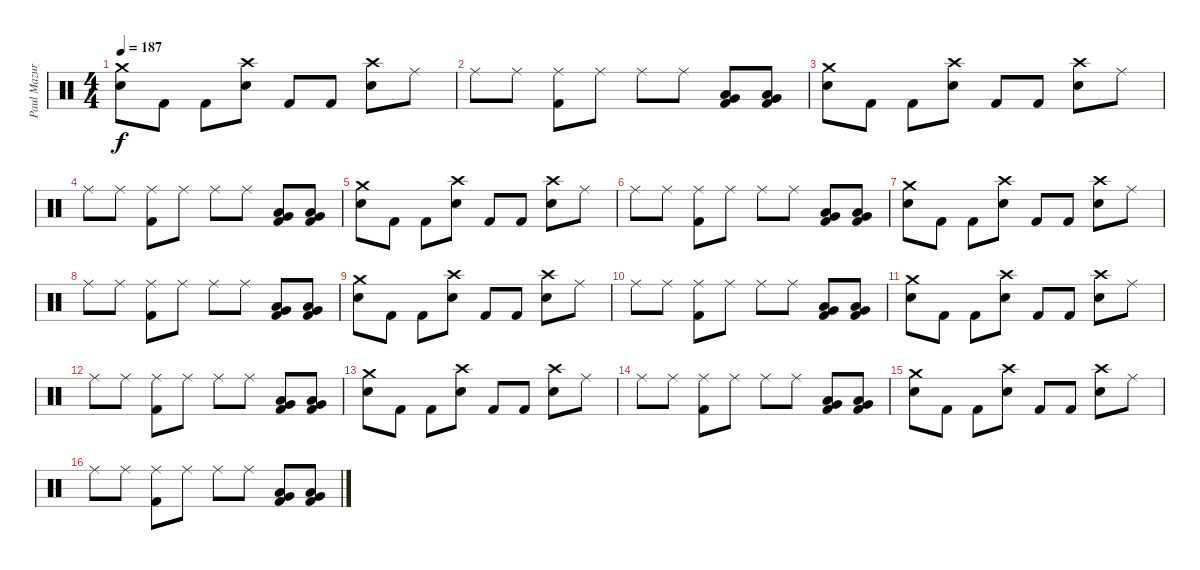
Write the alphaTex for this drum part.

\track ("Paul Mazurkiewicz - Drums" "Paul Mazur") {instrument percussion}
\staff {score}
\articulation defaults
\ts (4 4)
\tempo 187
\clef neutral
\ks c
("Crash medium (hit)" "Snare (hit) 2").8{dy f} "Kick (hit) 2".8 "Kick (hit) 2".8 ("Crash high (hit)" "Snare (hit) 2").8 "Kick (hit) 2".8 "Kick (hit) 2".8 ("Crash high (hit)" "Snare (hit) 2").8 "Ride (middle)".8 |
"Ride (middle)".8 "Ride (middle)".8 ("Ride (middle)" "Kick (hit) 2").8 "Ride (middle)".8 "Ride (middle)".8 "Ride (middle)".8 ("Kick (hit) 2" "Low Floor Tom (hit)" "Very Low Tom (hit)").8 ("Kick (hit) 2" "Low Floor Tom (hit)" "Very Low Tom (hit)").8 |
("Crash medium (hit)" "Snare (hit) 2").8 "Kick (hit) 2".8 "Kick (hit) 2".8 ("Crash high (hit)" "Snare (hit) 2").8 "Kick (hit) 2".8 "Kick (hit) 2".8 ("Crash high (hit)" "Snare (hit) 2").8 "Ride (middle)".8 |
"Ride (middle)".8 "Ride (middle)".8 ("Ride (middle)" "Kick (hit) 2").8 "Ride (middle)".8 "Ride (middle)".8 "Ride (middle)".8 ("Kick (hit) 2" "Low Floor Tom (hit)" "Very Low Tom (hit)").8 ("Kick (hit) 2" "Low Floor Tom (hit)" "Very Low Tom (hit)").8 |
("Crash medium (hit)" "Snare (hit) 2").8 "Kick (hit) 2".8 "Kick (hit) 2".8 ("Crash high (hit)" "Snare (hit) 2").8 "Kick (hit) 2".8 "Kick (hit) 2".8 ("Crash high (hit)" "Snare (hit) 2").8 "Ride (middle)".8 |
"Ride (middle)".8 "Ride (middle)".8 ("Ride (middle)" "Kick (hit) 2").8 "Ride (middle)".8 "Ride (middle)".8 "Ride (middle)".8 ("Kick (hit) 2" "Low Floor Tom (hit)" "Very Low Tom (hit)").8 ("Kick (hit) 2" "Low Floor Tom (hit)" "Very Low Tom (hit)").8 |
("Crash medium (hit)" "Snare (hit) 2").8 "Kick (hit) 2".8 "Kick (hit) 2".8 ("Crash high (hit)" "Snare (hit) 2").8 "Kick (hit) 2".8 "Kick (hit) 2".8 ("Crash high (hit)" "Snare (hit) 2").8 "Ride (middle)".8 |
"Ride (middle)".8 "Ride (middle)".8 ("Ride (middle)" "Kick (hit) 2").8 "Ride (middle)".8 "Ride (middle)".8 "Ride (middle)".8 ("Kick (hit) 2" "Low Floor Tom (hit)" "Very Low Tom (hit)").8 ("Kick (hit) 2" "Low Floor Tom (hit)" "Very Low Tom (hit)").8 |
("Crash medium (hit)" "Snare (hit) 2").8 "Kick (hit) 2".8 "Kick (hit) 2".8 ("Crash high (hit)" "Snare (hit) 2").8 "Kick (hit) 2".8 "Kick (hit) 2".8 ("Crash high (hit)" "Snare (hit) 2").8 "Ride (middle)".8 |
"Ride (middle)".8 "Ride (middle)".8 ("Ride (middle)" "Kick (hit) 2").8 "Ride (middle)".8 "Ride (middle)".8 "Ride (middle)".8 ("Kick (hit) 2" "Low Floor Tom (hit)" "Very Low Tom (hit)").8 ("Kick (hit) 2" "Low Floor Tom (hit)" "Very Low Tom (hit)").8 |
("Crash medium (hit)" "Snare (hit) 2").8 "Kick (hit) 2".8 "Kick (hit) 2".8 ("Crash high (hit)" "Snare (hit) 2").8 "Kick (hit) 2".8 "Kick (hit) 2".8 ("Crash high (hit)" "Snare (hit) 2").8 "Ride (middle)".8 |
"Ride (middle)".8 "Ride (middle)".8 ("Ride (middle)" "Kick (hit) 2").8 "Ride (middle)".8 "Ride (middle)".8 "Ride (middle)".8 ("Kick (hit) 2" "Low Floor Tom (hit)" "Very Low Tom (hit)").8 ("Kick (hit) 2" "Low Floor Tom (hit)" "Very Low Tom (hit)").8 |
("Crash medium (hit)" "Snare (hit) 2").8 "Kick (hit) 2".8 "Kick (hit) 2".8 ("Crash high (hit)" "Snare (hit) 2").8 "Kick (hit) 2".8 "Kick (hit) 2".8 ("Crash high (hit)" "Snare (hit) 2").8 "Ride (middle)".8 |
"Ride (middle)".8 "Ride (middle)".8 ("Ride (middle)" "Kick (hit) 2").8 "Ride (middle)".8 "Ride (middle)".8 "Ride (middle)".8 ("Kick (hit) 2" "Low Floor Tom (hit)" "Very Low Tom (hit)").8 ("Kick (hit) 2" "Low Floor Tom (hit)" "Very Low Tom (hit)").8 |
("Crash medium (hit)" "Snare (hit) 2").8 "Kick (hit) 2".8 "Kick (hit) 2".8 ("Crash high (hit)" "Snare (hit) 2").8 "Kick (hit) 2".8 "Kick (hit) 2".8 ("Crash high (hit)" "Snare (hit) 2").8 "Ride (middle)".8 |
"Ride (middle)".8 "Ride (middle)".8 ("Ride (middle)" "Kick (hit) 2").8 "Ride (middle)".8 "Ride (middle)".8 "Ride (middle)".8 ("Kick (hit) 2" "Low Floor Tom (hit)" "Very Low Tom (hit)").8 ("Kick (hit) 2" "Low Floor Tom (hit)" "Very Low Tom (hit)").8
